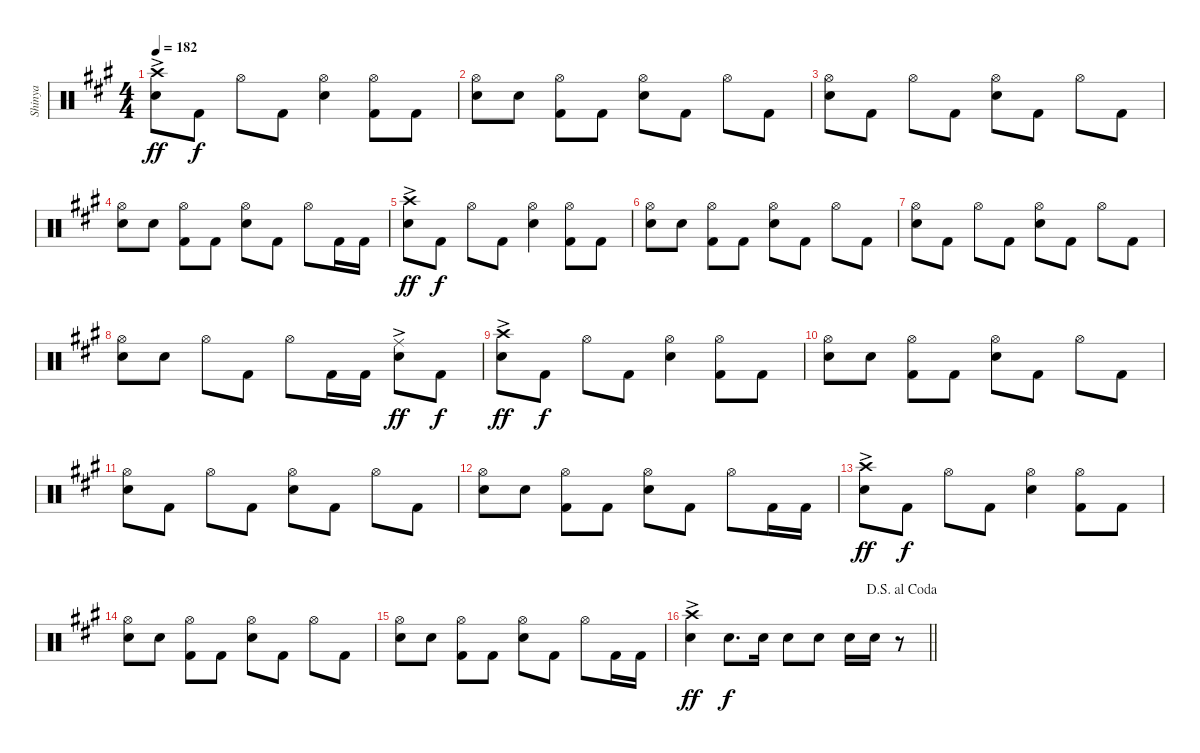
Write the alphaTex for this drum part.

\track ("Shinya" "Shinya") {instrument percussion}
\staff {score}
\articulation defaults
\ts (4 4)
\tempo 182
\clef neutral
\ks a
("Crash high (hit)"{ac} "Snare (hit) 2").8{dy ff} "Kick (hit) 2".8{dy f} "Hi-Hat (open)".8 "Kick (hit) 2".8 ("Hi-Hat (open)" "Snare (hit) 2").4 ("Hi-Hat (open)" "Kick (hit) 2").8 "Kick (hit) 2".8 |
("Hi-Hat (open)" "Snare (hit) 2").8 "Snare (hit) 2".8 ("Hi-Hat (open)" "Kick (hit) 2").8 "Kick (hit) 2".8 ("Hi-Hat (open)" "Snare (hit) 2").8 "Kick (hit) 2".8 "Hi-Hat (open)".8 "Kick (hit) 2".8 |
("Hi-Hat (open)" "Snare (hit) 2").8 "Kick (hit) 2".8 "Hi-Hat (open)".8 "Kick (hit) 2".8 ("Hi-Hat (open)" "Snare (hit) 2").8 "Kick (hit) 2".8 "Hi-Hat (open)".8 "Kick (hit) 2".8 |
("Hi-Hat (open)" "Snare (hit) 2").8 "Snare (hit) 2".8 ("Hi-Hat (open)" "Kick (hit) 2").8 "Kick (hit) 2".8 ("Hi-Hat (open)" "Snare (hit) 2").8 "Kick (hit) 2".8 "Hi-Hat (open)".8 "Kick (hit) 2".16 "Kick (hit) 2".16 |
("Crash high (hit)"{ac} "Snare (hit) 2").8{dy ff} "Kick (hit) 2".8{dy f} "Hi-Hat (open)".8 "Kick (hit) 2".8 ("Hi-Hat (open)" "Snare (hit) 2").4 ("Hi-Hat (open)" "Kick (hit) 2").8 "Kick (hit) 2".8 |
("Hi-Hat (open)" "Snare (hit) 2").8 "Snare (hit) 2".8 ("Hi-Hat (open)" "Kick (hit) 2").8 "Kick (hit) 2".8 ("Hi-Hat (open)" "Snare (hit) 2").8 "Kick (hit) 2".8 "Hi-Hat (open)".8 "Kick (hit) 2".8 |
("Hi-Hat (open)" "Snare (hit) 2").8 "Kick (hit) 2".8 "Hi-Hat (open)".8 "Kick (hit) 2".8 ("Hi-Hat (open)" "Snare (hit) 2").8 "Kick (hit) 2".8 "Hi-Hat (open)".8 "Kick (hit) 2".8 |
("Hi-Hat (open)" "Snare (hit) 2").8 "Snare (hit) 2".8 "Hi-Hat (open)".8 "Kick (hit) 2".8 "Hi-Hat (open)".8 "Kick (hit) 2".16 "Kick (hit) 2".16 ("Ride (middle)"{ac} "Snare (hit) 2").8{dy ff} "Kick (hit) 2".8{dy f} |
("Crash high (hit)"{ac} "Snare (hit) 2").8{dy ff} "Kick (hit) 2".8{dy f} "Hi-Hat (open)".8 "Kick (hit) 2".8 ("Hi-Hat (open)" "Snare (hit) 2").4 ("Hi-Hat (open)" "Kick (hit) 2").8 "Kick (hit) 2".8 |
("Hi-Hat (open)" "Snare (hit) 2").8 "Snare (hit) 2".8 ("Hi-Hat (open)" "Kick (hit) 2").8 "Kick (hit) 2".8 ("Hi-Hat (open)" "Snare (hit) 2").8 "Kick (hit) 2".8 "Hi-Hat (open)".8 "Kick (hit) 2".8 |
("Hi-Hat (open)" "Snare (hit) 2").8 "Kick (hit) 2".8 "Hi-Hat (open)".8 "Kick (hit) 2".8 ("Hi-Hat (open)" "Snare (hit) 2").8 "Kick (hit) 2".8 "Hi-Hat (open)".8 "Kick (hit) 2".8 |
("Hi-Hat (open)" "Snare (hit) 2").8 "Snare (hit) 2".8 ("Hi-Hat (open)" "Kick (hit) 2").8 "Kick (hit) 2".8 ("Hi-Hat (open)" "Snare (hit) 2").8 "Kick (hit) 2".8 "Hi-Hat (open)".8 "Kick (hit) 2".16 "Kick (hit) 2".16 |
("Crash high (hit)"{ac} "Snare (hit) 2").8{dy ff} "Kick (hit) 2".8{dy f} "Hi-Hat (open)".8 "Kick (hit) 2".8 ("Hi-Hat (open)" "Snare (hit) 2").4 ("Hi-Hat (open)" "Kick (hit) 2").8 "Kick (hit) 2".8 |
("Hi-Hat (open)" "Snare (hit) 2").8 "Snare (hit) 2".8 ("Hi-Hat (open)" "Kick (hit) 2").8 "Kick (hit) 2".8 ("Hi-Hat (open)" "Snare (hit) 2").8 "Kick (hit) 2".8 "Hi-Hat (open)".8 "Kick (hit) 2".8 |
("Hi-Hat (open)" "Snare (hit) 2").8 "Snare (hit) 2".8 ("Hi-Hat (open)" "Kick (hit) 2").8 "Kick (hit) 2".8 ("Hi-Hat (open)" "Snare (hit) 2").8 "Kick (hit) 2".8 "Hi-Hat (open)".8 "Kick (hit) 2".16 "Kick (hit) 2".16 |
\jump dalsegnoalcoda
\barLineRight lightlight
("Crash high (hit)"{ac} "Snare (hit) 2").4{dy ff} "Snare (hit) 2".8{d dy f} "Snare (hit) 2".16 "Snare (hit) 2".8 "Snare (hit) 2".8 "Snare (hit) 2".16 "Snare (hit) 2".16 r.8
